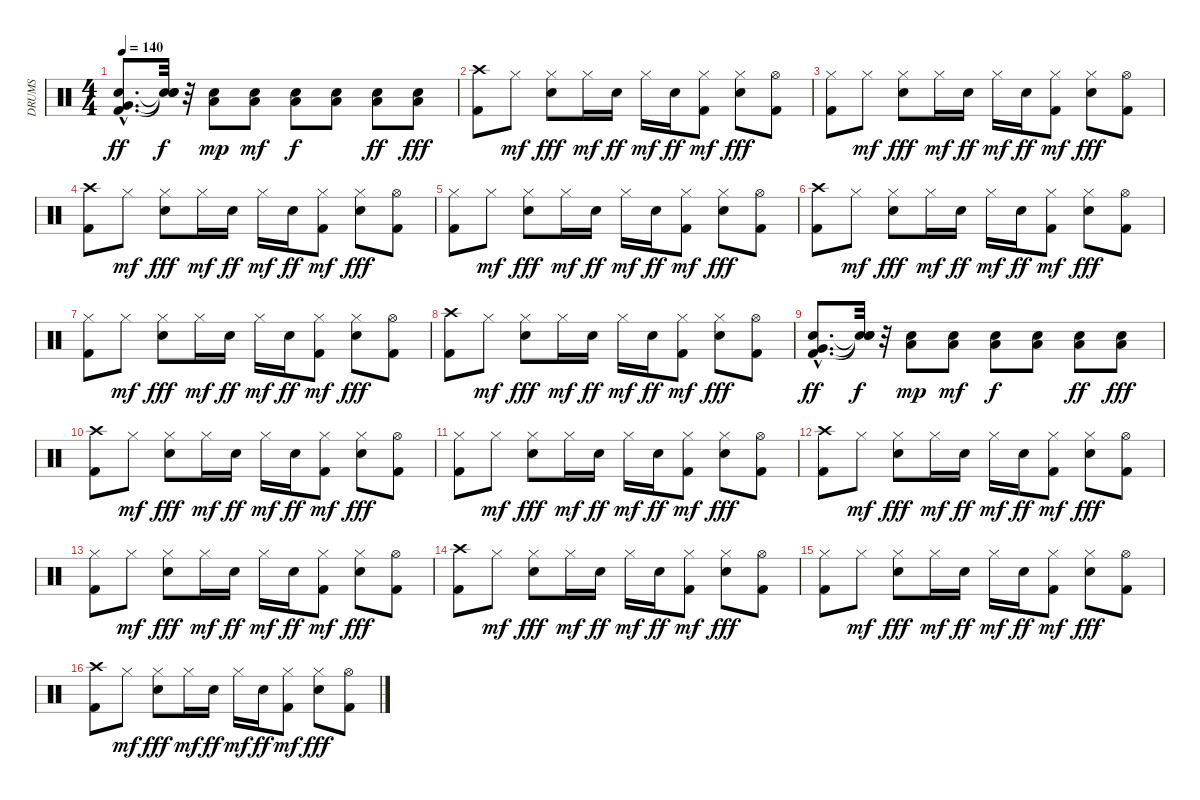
\track ("DRUMS" "DRUMS") {instrument percussion}
\staff {score}
\articulation defaults
\ts (4 4)
\tempo 140
\clef neutral
\ks c
("Kick (hit) 2"{hac} "Electric Snare (hit)"{hac} "Very Low Tom (hit)"{hac}).8{d dy ff} ("Snare (hit)"{t} "Snare (hit)"{t} "Snare (hit)"{t}).32{dy f} r.32 ("Low Tom (hit)" "Electric Snare (hit)").8{dy mp} ("Low Tom (hit)" "Electric Snare (hit)").8{dy mf} ("Low Tom (hit)" "Electric Snare (hit)").8{dy f} ("Low Tom (hit)" "Electric Snare (hit)").8 ("Low Tom (hit)" "Electric Snare (hit)").8{dy ff} ("Low Tom (hit)" "Electric Snare (hit)").8{dy fff} |
("Kick (hit) 2" "Crash high (hit)").8 "Hi-Hat (closed)".8{dy mf} ("Hi-Hat (closed)" "Electric Snare (hit)").8{dy fff} "Hi-Hat (closed)".16{dy mf} "Electric Snare (hit)".16{dy ff} "Hi-Hat (closed)".16{dy mf} "Electric Snare (hit)".16{dy ff} ("Kick (hit) 2" "Hi-Hat (closed)").8{dy mf} ("Hi-Hat (closed)" "Electric Snare (hit)").8{dy fff} ("Kick (hit) 2" "Hi-Hat (open)").8 |
("Kick (hit) 2" "Hi-Hat (closed)").8 "Hi-Hat (closed)".8{dy mf} ("Hi-Hat (closed)" "Electric Snare (hit)").8{dy fff} "Hi-Hat (closed)".16{dy mf} "Electric Snare (hit)".16{dy ff} "Hi-Hat (closed)".16{dy mf} "Electric Snare (hit)".16{dy ff} ("Kick (hit) 2" "Hi-Hat (closed)").8{dy mf} ("Hi-Hat (closed)" "Electric Snare (hit)").8{dy fff} ("Kick (hit) 2" "Hi-Hat (open)").8 |
("Kick (hit) 2" "Crash high (hit)").8 "Hi-Hat (closed)".8{dy mf} ("Hi-Hat (closed)" "Electric Snare (hit)").8{dy fff} "Hi-Hat (closed)".16{dy mf} "Electric Snare (hit)".16{dy ff} "Hi-Hat (closed)".16{dy mf} "Electric Snare (hit)".16{dy ff} ("Kick (hit) 2" "Hi-Hat (closed)").8{dy mf} ("Hi-Hat (closed)" "Electric Snare (hit)").8{dy fff} ("Kick (hit) 2" "Hi-Hat (open)").8 |
("Kick (hit) 2" "Hi-Hat (closed)").8 "Hi-Hat (closed)".8{dy mf} ("Hi-Hat (closed)" "Electric Snare (hit)").8{dy fff} "Hi-Hat (closed)".16{dy mf} "Electric Snare (hit)".16{dy ff} "Hi-Hat (closed)".16{dy mf} "Electric Snare (hit)".16{dy ff} ("Kick (hit) 2" "Hi-Hat (closed)").8{dy mf} ("Hi-Hat (closed)" "Electric Snare (hit)").8{dy fff} ("Kick (hit) 2" "Hi-Hat (open)").8 |
("Kick (hit) 2" "Crash high (hit)").8 "Hi-Hat (closed)".8{dy mf} ("Hi-Hat (closed)" "Electric Snare (hit)").8{dy fff} "Hi-Hat (closed)".16{dy mf} "Electric Snare (hit)".16{dy ff} "Hi-Hat (closed)".16{dy mf} "Electric Snare (hit)".16{dy ff} ("Kick (hit) 2" "Hi-Hat (closed)").8{dy mf} ("Hi-Hat (closed)" "Electric Snare (hit)").8{dy fff} ("Kick (hit) 2" "Hi-Hat (open)").8 |
("Kick (hit) 2" "Hi-Hat (closed)").8 "Hi-Hat (closed)".8{dy mf} ("Hi-Hat (closed)" "Electric Snare (hit)").8{dy fff} "Hi-Hat (closed)".16{dy mf} "Electric Snare (hit)".16{dy ff} "Hi-Hat (closed)".16{dy mf} "Electric Snare (hit)".16{dy ff} ("Kick (hit) 2" "Hi-Hat (closed)").8{dy mf} ("Hi-Hat (closed)" "Electric Snare (hit)").8{dy fff} ("Kick (hit) 2" "Hi-Hat (open)").8 |
("Kick (hit) 2" "Crash high (hit)").8 "Hi-Hat (closed)".8{dy mf} ("Hi-Hat (closed)" "Electric Snare (hit)").8{dy fff} "Hi-Hat (closed)".16{dy mf} "Electric Snare (hit)".16{dy ff} "Hi-Hat (closed)".16{dy mf} "Electric Snare (hit)".16{dy ff} ("Kick (hit) 2" "Hi-Hat (closed)").8{dy mf} ("Hi-Hat (closed)" "Electric Snare (hit)").8{dy fff} ("Kick (hit) 2" "Hi-Hat (open)").8 |
("Kick (hit) 2"{hac} "Electric Snare (hit)"{hac} "Very Low Tom (hit)"{hac}).8{d dy ff} ("Snare (hit)"{t} "Snare (hit)"{t} "Snare (hit)"{t}).32{dy f} r.32 ("Low Tom (hit)" "Electric Snare (hit)").8{dy mp} ("Low Tom (hit)" "Electric Snare (hit)").8{dy mf} ("Low Tom (hit)" "Electric Snare (hit)").8{dy f} ("Low Tom (hit)" "Electric Snare (hit)").8 ("Low Tom (hit)" "Electric Snare (hit)").8{dy ff} ("Low Tom (hit)" "Electric Snare (hit)").8{dy fff} |
("Kick (hit) 2" "Crash high (hit)").8 "Hi-Hat (closed)".8{dy mf} ("Hi-Hat (closed)" "Electric Snare (hit)").8{dy fff} "Hi-Hat (closed)".16{dy mf} "Electric Snare (hit)".16{dy ff} "Hi-Hat (closed)".16{dy mf} "Electric Snare (hit)".16{dy ff} ("Kick (hit) 2" "Hi-Hat (closed)").8{dy mf} ("Hi-Hat (closed)" "Electric Snare (hit)").8{dy fff} ("Kick (hit) 2" "Hi-Hat (open)").8 |
("Kick (hit) 2" "Hi-Hat (closed)").8 "Hi-Hat (closed)".8{dy mf} ("Hi-Hat (closed)" "Electric Snare (hit)").8{dy fff} "Hi-Hat (closed)".16{dy mf} "Electric Snare (hit)".16{dy ff} "Hi-Hat (closed)".16{dy mf} "Electric Snare (hit)".16{dy ff} ("Kick (hit) 2" "Hi-Hat (closed)").8{dy mf} ("Hi-Hat (closed)" "Electric Snare (hit)").8{dy fff} ("Kick (hit) 2" "Hi-Hat (open)").8 |
("Kick (hit) 2" "Crash high (hit)").8 "Hi-Hat (closed)".8{dy mf} ("Hi-Hat (closed)" "Electric Snare (hit)").8{dy fff} "Hi-Hat (closed)".16{dy mf} "Electric Snare (hit)".16{dy ff} "Hi-Hat (closed)".16{dy mf} "Electric Snare (hit)".16{dy ff} ("Kick (hit) 2" "Hi-Hat (closed)").8{dy mf} ("Hi-Hat (closed)" "Electric Snare (hit)").8{dy fff} ("Kick (hit) 2" "Hi-Hat (open)").8 |
("Kick (hit) 2" "Hi-Hat (closed)").8 "Hi-Hat (closed)".8{dy mf} ("Hi-Hat (closed)" "Electric Snare (hit)").8{dy fff} "Hi-Hat (closed)".16{dy mf} "Electric Snare (hit)".16{dy ff} "Hi-Hat (closed)".16{dy mf} "Electric Snare (hit)".16{dy ff} ("Kick (hit) 2" "Hi-Hat (closed)").8{dy mf} ("Hi-Hat (closed)" "Electric Snare (hit)").8{dy fff} ("Kick (hit) 2" "Hi-Hat (open)").8 |
("Kick (hit) 2" "Crash high (hit)").8{volume 14} "Hi-Hat (closed)".8{dy mf volume 14} ("Hi-Hat (closed)" "Electric Snare (hit)").8{dy fff volume 13} "Hi-Hat (closed)".16{dy mf volume 13} "Electric Snare (hit)".16{dy ff volume 12} "Hi-Hat (closed)".16{dy mf volume 12} "Electric Snare (hit)".16{dy ff volume 12} ("Kick (hit) 2" "Hi-Hat (closed)").8{dy mf volume 12} ("Hi-Hat (closed)" "Electric Snare (hit)").8{dy fff volume 11} ("Kick (hit) 2" "Hi-Hat (open)").8{volume 10} |
("Kick (hit) 2" "Hi-Hat (closed)").8{volume 10} "Hi-Hat (closed)".8{dy mf volume 9} ("Hi-Hat (closed)" "Electric Snare (hit)").8{dy fff volume 8} "Hi-Hat (closed)".16{dy mf volume 8} "Electric Snare (hit)".16{dy ff volume 8} "Hi-Hat (closed)".16{dy mf volume 7} "Electric Snare (hit)".16{dy ff volume 7} ("Kick (hit) 2" "Hi-Hat (closed)").8{dy mf volume 7} ("Hi-Hat (closed)" "Electric Snare (hit)").8{dy fff volume 6} ("Kick (hit) 2" "Hi-Hat (open)").8{volume 6} |
("Kick (hit) 2" "Crash high (hit)").8{volume 5} "Hi-Hat (closed)".8{dy mf volume 4} ("Hi-Hat (closed)" "Electric Snare (hit)").8{dy fff volume 4} "Hi-Hat (closed)".16{dy mf volume 3} "Electric Snare (hit)".16{dy ff volume 3} "Hi-Hat (closed)".16{dy mf volume 2} "Electric Snare (hit)".16{dy ff volume 2} ("Kick (hit) 2" "Hi-Hat (closed)").8{dy mf volume 2} ("Hi-Hat (closed)" "Electric Snare (hit)").8{dy fff volume 1} ("Kick (hit) 2" "Hi-Hat (open)").8{volume 1}
